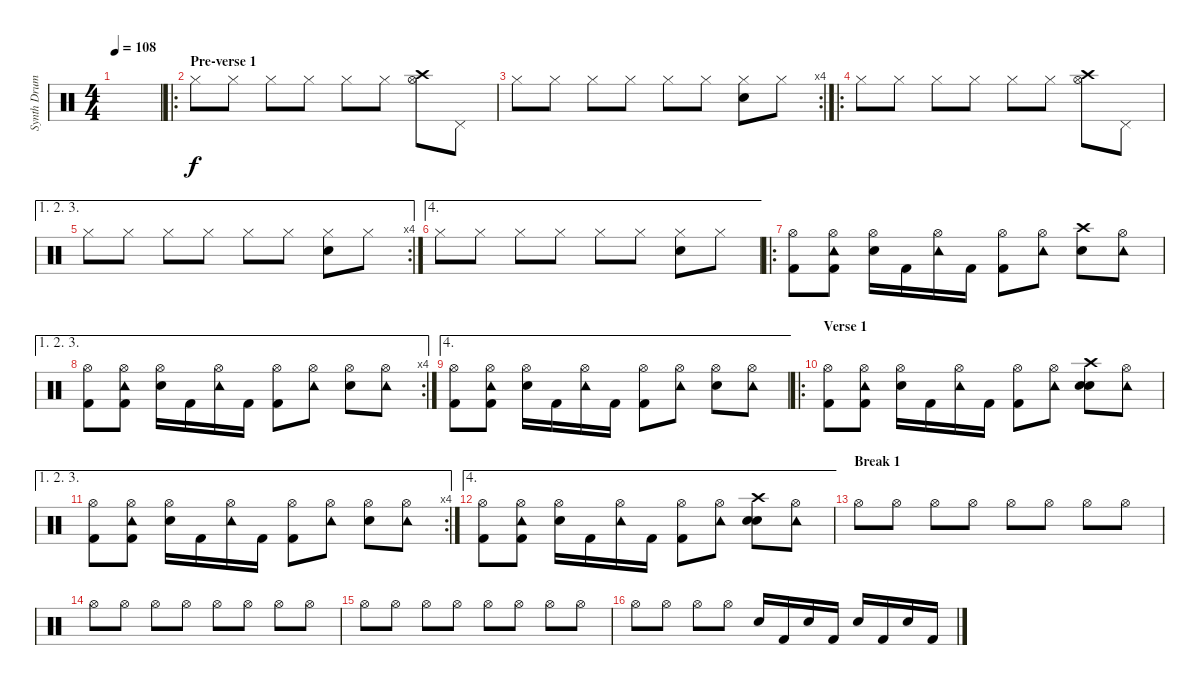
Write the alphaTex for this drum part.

\track ("Synth Drums && percs" "Synth Drum") {instrument percussion}
\staff {score}
\articulation defaults
\ts (4 4)
\tempo 108
\clef neutral
\ks c
|
\ro
\section ("" "Pre-verse 1")
"Hi-Hat (closed)".8 "Hi-Hat (closed)".8 "Hi-Hat (closed)".8 "Hi-Hat (closed)".8 "Hi-Hat (closed)".8 "Hi-Hat (closed)".8 ("Hi-Hat (open)" "Crash high (hit)").8 "Pedal Hi-Hat (hit)".8 |
\rc 4 "Hi-Hat (closed)".8 "Hi-Hat (closed)".8 "Hi-Hat (closed)".8 "Hi-Hat (closed)".8 "Hi-Hat (closed)".8 "Hi-Hat (closed)".8
("Hi-Hat (closed)" "Snare (hit) 2").8 "Hi-Hat (closed)".8 |
\ro "Hi-Hat (closed)".8 "Hi-Hat (closed)".8 "Hi-Hat (closed)".8 "Hi-Hat (closed)".8 "Hi-Hat (closed)".8 "Hi-Hat (closed)".8
("Hi-Hat (open)" "Crash high (hit)").8 "Pedal Hi-Hat (hit)".8 |
\ae (1 2 3)
\rc 4 "Hi-Hat (closed)".8 "Hi-Hat (closed)".8 "Hi-Hat (closed)".8 "Hi-Hat (closed)".8 "Hi-Hat (closed)".8 "Hi-Hat (closed)".8
("Hi-Hat (closed)" "Snare (hit) 2").8 "Hi-Hat (closed)".8 |
\ae 4 "Hi-Hat (closed)".8 "Hi-Hat (closed)".8 "Hi-Hat (closed)".8 "Hi-Hat (closed)".8 "Hi-Hat (closed)".8 "Hi-Hat (closed)".8
("Hi-Hat (closed)" "Snare (hit) 2").8 "Hi-Hat (closed)".8 |
\ro
("Hi-Hat (open)" "Kick (hit) 2").8 ("Hi-Hat (open)" "Tambourine (hit)" "Kick (hit) 2").8 ("Hi-Hat (open)" "Snare (hit) 2").16 "Kick (hit) 2".16 ("Hi-Hat (open)" "Tambourine (hit)").16 "Kick (hit) 2".16 ("Hi-Hat (open)" "Kick (hit) 2").8 ("Hi-Hat (open)" "Tambourine (hit)").8 ("Crash high (hit)" "Snare (hit) 2").8 ("Hi-Hat (open)" "Tambourine (hit)").8 |
\ae (1 2 3)
\rc 4
("Hi-Hat (open)" "Kick (hit) 2").8 ("Hi-Hat (open)" "Tambourine (hit)" "Kick (hit) 2").8 ("Hi-Hat (open)" "Snare (hit) 2").16 "Kick (hit) 2".16 ("Hi-Hat (open)" "Tambourine (hit)").16 "Kick (hit) 2".16 ("Hi-Hat (open)" "Kick (hit) 2").8 ("Hi-Hat (open)" "Tambourine (hit)").8 ("Hi-Hat (open)" "Snare (hit) 2").8 ("Hi-Hat (open)" "Tambourine (hit)").8 |
\ae 4
("Hi-Hat (open)" "Kick (hit) 2").8 ("Hi-Hat (open)" "Tambourine (hit)" "Kick (hit) 2").8 ("Hi-Hat (open)" "Snare (hit) 2").16 "Kick (hit) 2".16 ("Hi-Hat (open)" "Tambourine (hit)").16 "Kick (hit) 2".16 ("Hi-Hat (open)" "Kick (hit) 2").8 ("Hi-Hat (open)" "Tambourine (hit)").8 ("Hi-Hat (open)" "Snare (hit) 2").8 ("Hi-Hat (open)" "Tambourine (hit)").8 |
\ro
\section ("" "Verse 1")
("Hi-Hat (open)" "Kick (hit) 2").8 ("Hi-Hat (open)" "Tambourine (hit)" "Kick (hit) 2").8 ("Hi-Hat (open)" "Snare (hit) 2").16 "Kick (hit) 2".16 ("Hi-Hat (open)" "Tambourine (hit)").16 "Kick (hit) 2".16 ("Hi-Hat (open)" "Kick (hit) 2").8 ("Hi-Hat (open)" "Tambourine (hit)").8 ("Crash high (hit)" "Hand Clap (hit)" "Snare (hit) 2").8 ("Hi-Hat (open)" "Tambourine (hit)").8 |
\ae (1 2 3)
\rc 4
("Hi-Hat (open)" "Kick (hit) 2").8 ("Hi-Hat (open)" "Tambourine (hit)" "Kick (hit) 2").8 ("Hi-Hat (open)" "Snare (hit) 2").16 "Kick (hit) 2".16 ("Hi-Hat (open)" "Tambourine (hit)").16 "Kick (hit) 2".16 ("Hi-Hat (open)" "Kick (hit) 2").8 ("Hi-Hat (open)" "Tambourine (hit)").8 ("Hi-Hat (open)" "Snare (hit) 2").8 ("Hi-Hat (open)" "Tambourine (hit)").8 |
\ae 4
("Hi-Hat (open)" "Kick (hit) 2").8 ("Hi-Hat (open)" "Tambourine (hit)" "Kick (hit) 2").8 ("Hi-Hat (open)" "Snare (hit) 2").16 "Kick (hit) 2".16 ("Hi-Hat (open)" "Tambourine (hit)").16 "Kick (hit) 2".16 ("Hi-Hat (open)" "Kick (hit) 2").8 ("Hi-Hat (open)" "Tambourine (hit)").8 ("Crash high (hit)" "Hand Clap (hit)" "Snare (hit) 2").8 ("Hi-Hat (open)" "Tambourine (hit)").8 |
\section ("" "Break 1")
"Hi-Hat (open)".8 "Hi-Hat (open)".8 "Hi-Hat (open)".8 "Hi-Hat (open)".8 "Hi-Hat (open)".8 "Hi-Hat (open)".8 "Hi-Hat (open)".8 "Hi-Hat (open)".8 |
"Hi-Hat (open)".8 "Hi-Hat (open)".8 "Hi-Hat (open)".8 "Hi-Hat (open)".8 "Hi-Hat (open)".8 "Hi-Hat (open)".8 "Hi-Hat (open)".8 "Hi-Hat (open)".8 |
"Hi-Hat (open)".8 "Hi-Hat (open)".8 "Hi-Hat (open)".8 "Hi-Hat (open)".8 "Hi-Hat (open)".8 "Hi-Hat (open)".8 "Hi-Hat (open)".8 "Hi-Hat (open)".8 |
"Hi-Hat (open)".8 "Hi-Hat (open)".8 "Hi-Hat (open)".8 "Hi-Hat (open)".8 "Snare (hit) 2".16 "Kick (hit) 2".16 "Snare (hit) 2".16 "Kick (hit) 2".16 "Snare (hit) 2".16 "Kick (hit) 2".16 "Snare (hit) 2".16 "Kick (hit) 2".16
